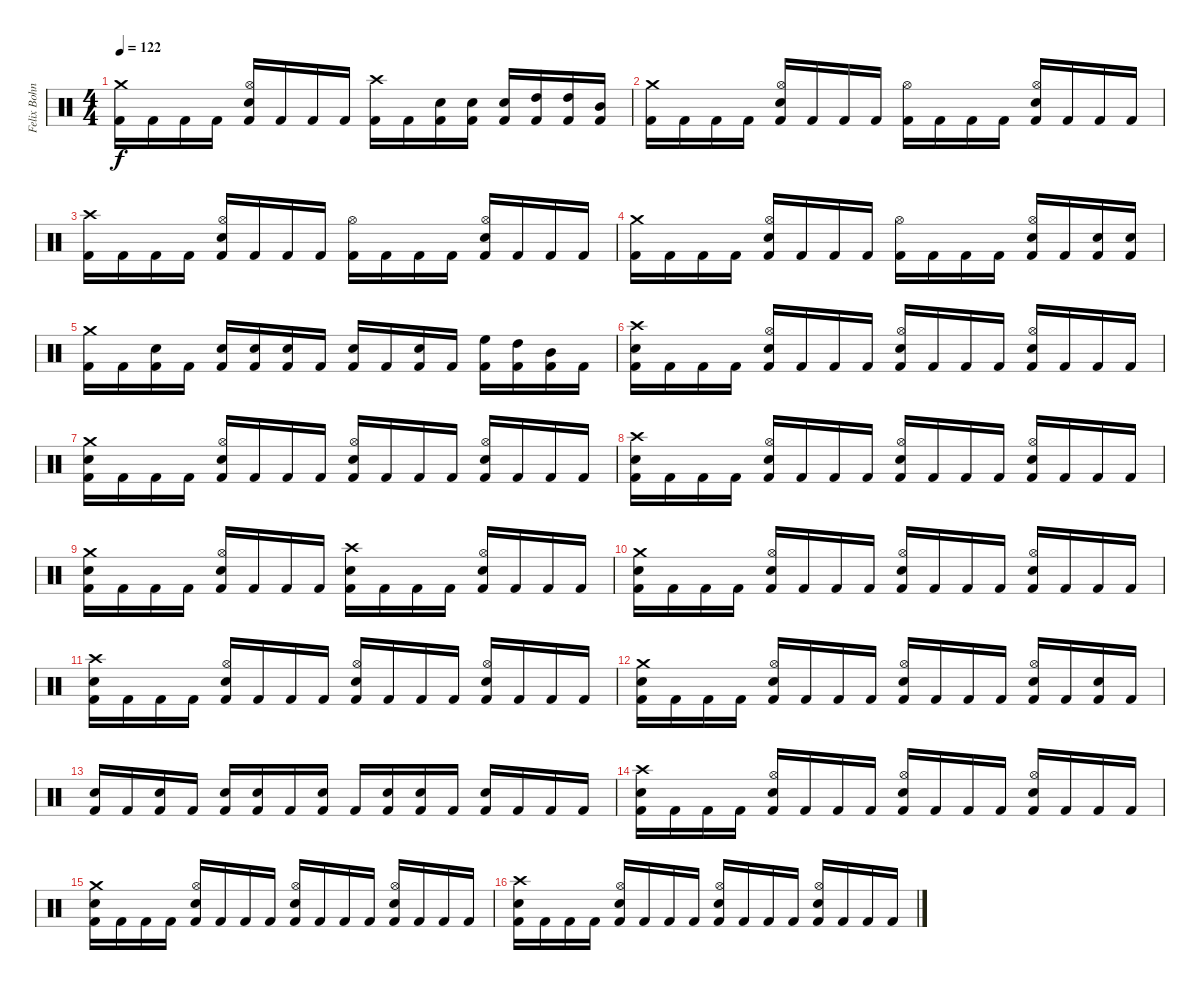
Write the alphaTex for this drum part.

\track ("Felix Bohnke" "Felix Bohn") {instrument percussion}
\staff {score}
\articulation defaults
\ts (4 4)
\tempo 122
\clef neutral
\ks c
("Crash medium (hit)" "Kick (hit) 2").16{dy f} "Kick (hit) 2".16 "Kick (hit) 2".16 "Kick (hit) 2".16 ("Hi-Hat (open)" "Snare (hit) 2" "Kick (hit) 2").16 "Kick (hit) 2".16 "Kick (hit) 2".16 "Kick (hit) 2".16 ("Crash high (hit)" "Kick (hit) 2").16 "Kick (hit) 2".16 ("Snare (hit) 2" "Kick (hit) 2").16 ("Snare (hit) 2" "Kick (hit) 2").16 ("Snare (hit) 2" "Kick (hit) 2").16 ("High Tom (hit)" "Kick (hit) 2").16 ("High Tom (hit)" "Kick (hit) 2").16 ("Mid Tom (hit)" "Kick (hit) 2").16 |
("Crash medium (hit)" "Kick (hit) 2").16 "Kick (hit) 2".16 "Kick (hit) 2".16 "Kick (hit) 2".16 ("Hi-Hat (open)" "Snare (hit) 2" "Kick (hit) 2").16 "Kick (hit) 2".16 "Kick (hit) 2".16 "Kick (hit) 2".16 ("Hi-Hat (open)" "Kick (hit) 2").16 "Kick (hit) 2".16 "Kick (hit) 2".16 "Kick (hit) 2".16 ("Hi-Hat (open)" "Snare (hit) 2" "Kick (hit) 2").16 "Kick (hit) 2".16 "Kick (hit) 2".16 "Kick (hit) 2".16 |
("Crash high (hit)" "Kick (hit) 2").16 "Kick (hit) 2".16 "Kick (hit) 2".16 "Kick (hit) 2".16 ("Hi-Hat (open)" "Snare (hit) 2" "Kick (hit) 2").16 "Kick (hit) 2".16 "Kick (hit) 2".16 "Kick (hit) 2".16 ("Hi-Hat (open)" "Kick (hit) 2").16 "Kick (hit) 2".16 "Kick (hit) 2".16 "Kick (hit) 2".16 ("Hi-Hat (open)" "Snare (hit) 2" "Kick (hit) 2").16 "Kick (hit) 2".16 "Kick (hit) 2".16 "Kick (hit) 2".16 |
("Crash medium (hit)" "Kick (hit) 2").16 "Kick (hit) 2".16 "Kick (hit) 2".16 "Kick (hit) 2".16 ("Hi-Hat (open)" "Snare (hit) 2" "Kick (hit) 2").16 "Kick (hit) 2".16 "Kick (hit) 2".16 "Kick (hit) 2".16 ("Hi-Hat (open)" "Kick (hit) 2").16 "Kick (hit) 2".16 "Kick (hit) 2".16 "Kick (hit) 2".16 ("Hi-Hat (open)" "Snare (hit) 2" "Kick (hit) 2").16 "Kick (hit) 2".16 ("Snare (hit) 2" "Kick (hit) 2").16 ("Snare (hit) 2" "Kick (hit) 2").16 |
("Crash medium (hit)" "Kick (hit) 2").16 "Kick (hit) 2".16 ("Snare (hit) 2" "Kick (hit) 2").16 "Kick (hit) 2".16 ("Snare (hit) 2" "Kick (hit) 2").16 ("Snare (hit) 2" "Kick (hit) 2").16 ("Snare (hit) 2" "Kick (hit) 2").16 "Kick (hit) 2".16 ("Snare (hit) 2" "Kick (hit) 2").16 "Kick (hit) 2".16 ("Snare (hit) 2" "Kick (hit) 2").16 "Kick (hit) 2".16 ("High Floor Tom (hit)" "Kick (hit) 2").16 ("High Tom (hit)" "Kick (hit) 2").16 ("Mid Tom (hit)" "Kick (hit) 2").16 "Kick (hit) 2".16 |
("Crash high (hit)" "Snare (hit) 2" "Kick (hit) 2").16{volume 14} "Kick (hit) 2".16 "Kick (hit) 2".16 "Kick (hit) 2".16 ("Hi-Hat (open)" "Snare (hit) 2" "Kick (hit) 2").16 "Kick (hit) 2".16 "Kick (hit) 2".16 "Kick (hit) 2".16 ("Hi-Hat (open)" "Snare (hit) 2" "Kick (hit) 2").16 "Kick (hit) 2".16 "Kick (hit) 2".16 "Kick (hit) 2".16 ("Hi-Hat (open)" "Snare (hit) 2" "Kick (hit) 2").16 "Kick (hit) 2".16 "Kick (hit) 2".16 "Kick (hit) 2".16 |
("Crash medium (hit)" "Snare (hit) 2" "Kick (hit) 2").16 "Kick (hit) 2".16 "Kick (hit) 2".16 "Kick (hit) 2".16 ("Hi-Hat (open)" "Snare (hit) 2" "Kick (hit) 2").16 "Kick (hit) 2".16 "Kick (hit) 2".16 "Kick (hit) 2".16 ("Hi-Hat (open)" "Snare (hit) 2" "Kick (hit) 2").16 "Kick (hit) 2".16 "Kick (hit) 2".16 "Kick (hit) 2".16 ("Hi-Hat (open)" "Snare (hit) 2" "Kick (hit) 2").16 "Kick (hit) 2".16 "Kick (hit) 2".16 "Kick (hit) 2".16 |
("Crash high (hit)" "Snare (hit) 2" "Kick (hit) 2").16{volume 10} "Kick (hit) 2".16 "Kick (hit) 2".16 "Kick (hit) 2".16 ("Hi-Hat (open)" "Snare (hit) 2" "Kick (hit) 2").16 "Kick (hit) 2".16 "Kick (hit) 2".16 "Kick (hit) 2".16 ("Hi-Hat (open)" "Snare (hit) 2" "Kick (hit) 2").16 "Kick (hit) 2".16 "Kick (hit) 2".16 "Kick (hit) 2".16 ("Hi-Hat (open)" "Snare (hit) 2" "Kick (hit) 2").16 "Kick (hit) 2".16 "Kick (hit) 2".16 "Kick (hit) 2".16 |
("Crash medium (hit)" "Snare (hit) 2" "Kick (hit) 2").16 "Kick (hit) 2".16 "Kick (hit) 2".16 "Kick (hit) 2".16 ("Hi-Hat (open)" "Snare (hit) 2" "Kick (hit) 2").16 "Kick (hit) 2".16 "Kick (hit) 2".16 "Kick (hit) 2".16 ("Crash high (hit)" "Snare (hit) 2" "Kick (hit) 2").16 "Kick (hit) 2".16 "Kick (hit) 2".16 "Kick (hit) 2".16 ("Hi-Hat (open)" "Snare (hit) 2" "Kick (hit) 2").16 "Kick (hit) 2".16 "Kick (hit) 2".16 "Kick (hit) 2".16 |
("Crash medium (hit)" "Snare (hit) 2" "Kick (hit) 2").16{volume 9} "Kick (hit) 2".16 "Kick (hit) 2".16 "Kick (hit) 2".16 ("Hi-Hat (open)" "Snare (hit) 2" "Kick (hit) 2").16 "Kick (hit) 2".16 "Kick (hit) 2".16 "Kick (hit) 2".16 ("Hi-Hat (open)" "Snare (hit) 2" "Kick (hit) 2").16 "Kick (hit) 2".16 "Kick (hit) 2".16 "Kick (hit) 2".16 ("Hi-Hat (open)" "Snare (hit) 2" "Kick (hit) 2").16 "Kick (hit) 2".16 "Kick (hit) 2".16 "Kick (hit) 2".16 |
("Crash high (hit)" "Snare (hit) 2" "Kick (hit) 2").16 "Kick (hit) 2".16 "Kick (hit) 2".16 "Kick (hit) 2".16 ("Hi-Hat (open)" "Snare (hit) 2" "Kick (hit) 2").16 "Kick (hit) 2".16 "Kick (hit) 2".16 "Kick (hit) 2".16 ("Hi-Hat (open)" "Snare (hit) 2" "Kick (hit) 2").16 "Kick (hit) 2".16 "Kick (hit) 2".16 "Kick (hit) 2".16 ("Hi-Hat (open)" "Snare (hit) 2" "Kick (hit) 2").16 "Kick (hit) 2".16 "Kick (hit) 2".16 "Kick (hit) 2".16 |
("Crash medium (hit)" "Snare (hit) 2" "Kick (hit) 2").16{volume 6} "Kick (hit) 2".16 "Kick (hit) 2".16 "Kick (hit) 2".16 ("Hi-Hat (open)" "Snare (hit) 2" "Kick (hit) 2").16 "Kick (hit) 2".16 "Kick (hit) 2".16 "Kick (hit) 2".16 ("Hi-Hat (open)" "Snare (hit) 2" "Kick (hit) 2").16 "Kick (hit) 2".16 "Kick (hit) 2".16 "Kick (hit) 2".16 ("Hi-Hat (open)" "Snare (hit) 2" "Kick (hit) 2").16 "Kick (hit) 2".16 ("Snare (hit) 2" "Kick (hit) 2").16 "Kick (hit) 2".16 |
("Snare (hit) 2" "Kick (hit) 2").16 "Kick (hit) 2".16 ("Snare (hit) 2" "Kick (hit) 2").16 "Kick (hit) 2".16 ("Snare (hit) 2" "Kick (hit) 2").16 ("Snare (hit) 2" "Kick (hit) 2").16 "Kick (hit) 2".16 ("Snare (hit) 2" "Kick (hit) 2").16 "Kick (hit) 2".16 ("Snare (hit) 2" "Kick (hit) 2").16 ("Snare (hit) 2" "Kick (hit) 2").16 "Kick (hit) 2".16 ("Snare (hit) 2" "Kick (hit) 2").16 "Kick (hit) 2".16 "Kick (hit) 2".16 "Kick (hit) 2".16 |
("Crash high (hit)" "Snare (hit) 2" "Kick (hit) 2").16{volume 4} "Kick (hit) 2".16 "Kick (hit) 2".16 "Kick (hit) 2".16 ("Hi-Hat (open)" "Snare (hit) 2" "Kick (hit) 2").16 "Kick (hit) 2".16 "Kick (hit) 2".16 "Kick (hit) 2".16 ("Hi-Hat (open)" "Snare (hit) 2" "Kick (hit) 2").16 "Kick (hit) 2".16 "Kick (hit) 2".16 "Kick (hit) 2".16 ("Hi-Hat (open)" "Snare (hit) 2" "Kick (hit) 2").16 "Kick (hit) 2".16 "Kick (hit) 2".16 "Kick (hit) 2".16 |
("Crash medium (hit)" "Snare (hit) 2" "Kick (hit) 2").16 "Kick (hit) 2".16 "Kick (hit) 2".16 "Kick (hit) 2".16 ("Hi-Hat (open)" "Snare (hit) 2" "Kick (hit) 2").16 "Kick (hit) 2".16 "Kick (hit) 2".16 "Kick (hit) 2".16 ("Hi-Hat (open)" "Snare (hit) 2" "Kick (hit) 2").16 "Kick (hit) 2".16 "Kick (hit) 2".16 "Kick (hit) 2".16 ("Hi-Hat (open)" "Snare (hit) 2" "Kick (hit) 2").16 "Kick (hit) 2".16 "Kick (hit) 2".16 "Kick (hit) 2".16 |
("Crash high (hit)" "Snare (hit) 2" "Kick (hit) 2").16{volume 2} "Kick (hit) 2".16 "Kick (hit) 2".16 "Kick (hit) 2".16 ("Hi-Hat (open)" "Snare (hit) 2" "Kick (hit) 2").16 "Kick (hit) 2".16 "Kick (hit) 2".16 "Kick (hit) 2".16 ("Hi-Hat (open)" "Snare (hit) 2" "Kick (hit) 2").16 "Kick (hit) 2".16 "Kick (hit) 2".16 "Kick (hit) 2".16 ("Hi-Hat (open)" "Snare (hit) 2" "Kick (hit) 2").16 "Kick (hit) 2".16 "Kick (hit) 2".16 "Kick (hit) 2".16
